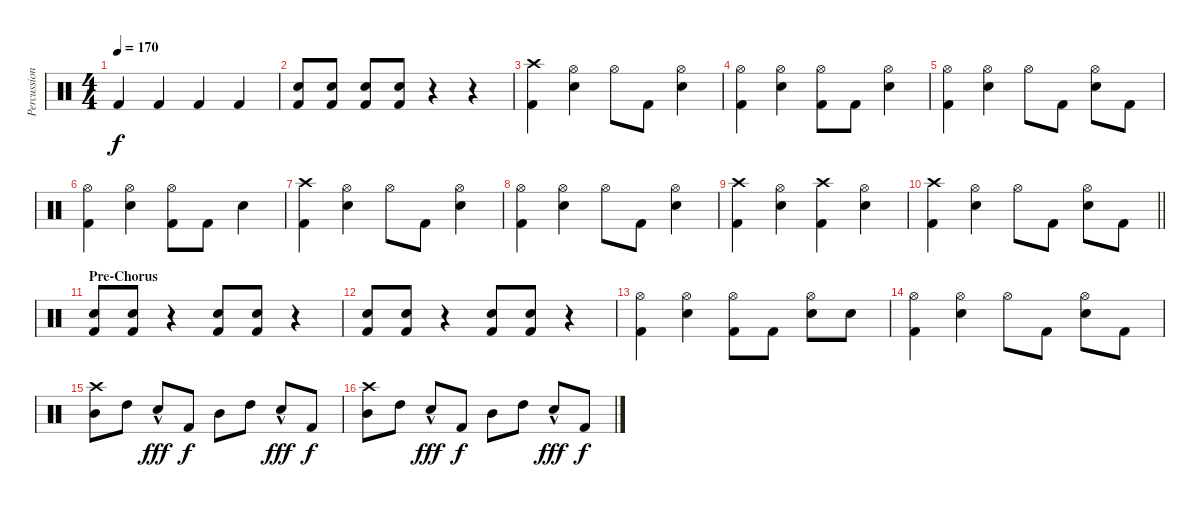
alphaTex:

\track ("Percussion" "Percussion") {instrument percussion}
\staff {score}
\articulation defaults
\ts (4 4)
\tempo 170
\clef neutral
\ks c "Kick (hit) 2".4{dy f} "Kick (hit) 2".4 "Kick (hit) 2".4 "Kick (hit) 2".4
|
("Snare (hit) 2" "Kick (hit) 2").8 ("Snare (hit) 2" "Kick (hit) 2").8 ("Snare (hit) 2" "Kick (hit) 2").8 ("Snare (hit) 2" "Kick (hit) 2").8 r.4 r.4 |
("Crash high (hit)" "Kick (hit) 2").4 ("Hi-Hat (open)" "Snare (hit) 2").4 "Hi-Hat (open)".8 "Kick (hit) 2".8 ("Hi-Hat (open)" "Snare (hit) 2").4 |
("Hi-Hat (open)" "Kick (hit) 2").4 ("Hi-Hat (open)" "Snare (hit) 2").4 ("Hi-Hat (open)" "Kick (hit) 2").8 "Kick (hit) 2".8 ("Hi-Hat (open)" "Snare (hit) 2").4 |
("Hi-Hat (open)" "Kick (hit) 2").4 ("Hi-Hat (open)" "Snare (hit) 2").4 "Hi-Hat (open)".8 "Kick (hit) 2".8 ("Hi-Hat (open)" "Snare (hit) 2").8 "Kick (hit) 2".8 |
("Hi-Hat (open)" "Kick (hit) 2").4 ("Hi-Hat (open)" "Snare (hit) 2").4 ("Hi-Hat (open)" "Kick (hit) 2").8 "Kick (hit) 2".8 "Snare (hit) 2".4 |
("Crash high (hit)" "Kick (hit) 2").4 ("Hi-Hat (open)" "Snare (hit) 2").4 "Hi-Hat (open)".8 "Kick (hit) 2".8 ("Hi-Hat (open)" "Snare (hit) 2").4 |
("Hi-Hat (open)" "Kick (hit) 2").4 ("Hi-Hat (open)" "Snare (hit) 2").4 "Hi-Hat (open)".8 "Kick (hit) 2".8 ("Hi-Hat (open)" "Snare (hit) 2").4 |
("Crash high (hit)" "Kick (hit) 2").4 ("Hi-Hat (open)" "Snare (hit) 2").4 ("Crash high (hit)" "Kick (hit) 2").4 ("Hi-Hat (open)" "Snare (hit) 2").4 |
\barLineRight lightlight
("Crash high (hit)" "Kick (hit) 2").4 ("Hi-Hat (open)" "Snare (hit) 2").4 "Hi-Hat (open)".8 "Kick (hit) 2".8 ("Hi-Hat (open)" "Snare (hit) 2").8 "Kick (hit) 2".8 |
\section ("" "Pre-Chorus")
("Snare (hit) 2" "Kick (hit) 2").8 ("Snare (hit) 2" "Kick (hit) 2").8 r.4 ("Snare (hit) 2" "Kick (hit) 2").8 ("Snare (hit) 2" "Kick (hit) 2").8 r.4 |
("Snare (hit) 2" "Kick (hit) 2").8 ("Snare (hit) 2" "Kick (hit) 2").8 r.4 ("Snare (hit) 2" "Kick (hit) 2").8 ("Snare (hit) 2" "Kick (hit) 2").8 r.4 |
("Hi-Hat (open)" "Kick (hit) 2").4 ("Hi-Hat (open)" "Snare (hit) 2").4 ("Hi-Hat (open)" "Kick (hit) 2").8 "Kick (hit) 2".8 ("Hi-Hat (open)" "Snare (hit) 2").8 "Snare (hit) 2".8 |
("Hi-Hat (open)" "Kick (hit) 2").4 ("Hi-Hat (open)" "Snare (hit) 2").4 "Hi-Hat (open)".8 "Kick (hit) 2".8 ("Hi-Hat (open)" "Snare (hit) 2").8 "Kick (hit) 2".8 |
("Crash high (hit)" "Mid Tom (hit)").8 "High Tom (hit)".8 "Snare (hit) 2"{hac}.8{dy fff} "Kick (hit) 2".8{dy f} "Mid Tom (hit)".8 "High Tom (hit)".8 "Snare (hit) 2"{hac}.8{dy fff} "Kick (hit) 2".8{dy f} |
("Crash high (hit)" "Mid Tom (hit)").8 "High Tom (hit)".8 "Snare (hit) 2"{hac}.8{dy fff} "Kick (hit) 2".8{dy f} "Mid Tom (hit)".8 "High Tom (hit)".8 "Snare (hit) 2"{hac}.8{dy fff} "Kick (hit) 2".8{dy f}
